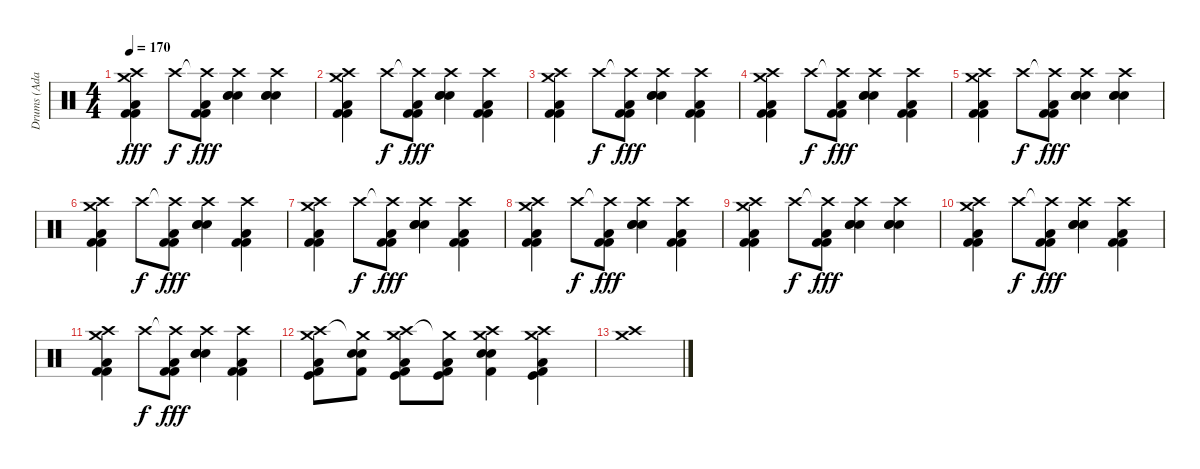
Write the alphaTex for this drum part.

\track ("Drums (Adam)" "Drums (Ada") {instrument percussion}
\staff {score}
\articulation defaults
\ts (4 4)
\tempo 170
\clef neutral
\ks c
("Crash medium (hit)" "Crash high (hit)" "Low Tom (hit)" "Kick (hit) 2" "Kick (hit) 2").4{dy fff} "Crash high (hit)".8{dy f} ("Crash high (hit)"{t} "Low Tom (hit)" "Kick (hit) 2" "Kick (hit) 2").8{dy fff} ("Crash high (hit)" "Snare (hit) 2" "Electric Snare (hit)" "Snare (hit) 2").4 ("Crash high (hit)" "Snare (hit) 2" "Electric Snare (hit)" "Snare (hit) 2").4 |
("Crash medium (hit)" "Crash high (hit)" "Low Tom (hit)" "Kick (hit) 2" "Kick (hit) 2").4 "Crash high (hit)".8{dy f} ("Crash high (hit)"{t} "Low Tom (hit)" "Kick (hit) 2" "Kick (hit) 2").8{dy fff} ("Crash high (hit)" "Snare (hit) 2" "Electric Snare (hit)" "Snare (hit) 2").4 ("Crash high (hit)" "Low Tom (hit)" "Kick (hit) 2" "Kick (hit) 2").4 |
("Crash medium (hit)" "Crash high (hit)" "Low Tom (hit)" "Kick (hit) 2" "Kick (hit) 2").4 "Crash high (hit)".8{dy f} ("Crash high (hit)"{t} "Low Tom (hit)" "Kick (hit) 2" "Kick (hit) 2").8{dy fff} ("Crash high (hit)" "Snare (hit) 2" "Electric Snare (hit)" "Snare (hit) 2").4 ("Crash high (hit)" "Low Tom (hit)" "Kick (hit) 2" "Kick (hit) 2").4 |
("Crash medium (hit)" "Crash high (hit)" "Low Tom (hit)" "Kick (hit) 2" "Kick (hit) 2").4 "Crash high (hit)".8{dy f} ("Crash high (hit)"{t} "Low Tom (hit)" "Kick (hit) 2" "Kick (hit) 2").8{dy fff} ("Crash high (hit)" "Snare (hit) 2" "Electric Snare (hit)" "Snare (hit) 2").4 ("Crash high (hit)" "Low Tom (hit)" "Kick (hit) 2" "Kick (hit) 2").4 |
("Crash medium (hit)" "Crash high (hit)" "Low Tom (hit)" "Kick (hit) 2" "Kick (hit) 2").4 "Crash high (hit)".8{dy f} ("Crash high (hit)"{t} "Low Tom (hit)" "Kick (hit) 2" "Kick (hit) 2").8{dy fff} ("Crash high (hit)" "Snare (hit) 2" "Electric Snare (hit)" "Snare (hit) 2").4 ("Crash high (hit)" "Snare (hit) 2" "Electric Snare (hit)" "Snare (hit) 2").4 |
("Crash medium (hit)" "Crash high (hit)" "Low Tom (hit)" "Kick (hit) 2" "Kick (hit) 2").4 "Crash high (hit)".8{dy f} ("Crash high (hit)"{t} "Low Tom (hit)" "Kick (hit) 2" "Kick (hit) 2").8{dy fff} ("Crash high (hit)" "Snare (hit) 2" "Electric Snare (hit)" "Snare (hit) 2").4 ("Crash high (hit)" "Low Tom (hit)" "Kick (hit) 2" "Kick (hit) 2").4 |
("Crash medium (hit)" "Crash high (hit)" "Low Tom (hit)" "Kick (hit) 2" "Kick (hit) 2").4 "Crash high (hit)".8{dy f} ("Crash high (hit)"{t} "Low Tom (hit)" "Kick (hit) 2" "Kick (hit) 2").8{dy fff} ("Crash high (hit)" "Snare (hit) 2" "Electric Snare (hit)" "Snare (hit) 2").4 ("Crash high (hit)" "Low Tom (hit)" "Kick (hit) 2" "Kick (hit) 2").4 |
("Crash medium (hit)" "Crash high (hit)" "Low Tom (hit)" "Kick (hit) 2" "Kick (hit) 2").4 "Crash high (hit)".8{dy f} ("Crash high (hit)"{t} "Low Tom (hit)" "Kick (hit) 2" "Kick (hit) 2").8{dy fff} ("Crash high (hit)" "Snare (hit) 2" "Electric Snare (hit)" "Snare (hit) 2").4 ("Crash high (hit)" "Low Tom (hit)" "Kick (hit) 2" "Kick (hit) 2").4 |
("Crash medium (hit)" "Crash high (hit)" "Low Tom (hit)" "Kick (hit) 2" "Kick (hit) 2").4 "Crash high (hit)".8{dy f} ("Crash high (hit)"{t} "Low Tom (hit)" "Kick (hit) 2" "Kick (hit) 2").8{dy fff} ("Crash high (hit)" "Snare (hit) 2" "Electric Snare (hit)" "Snare (hit) 2").4 ("Crash high (hit)" "Snare (hit) 2" "Electric Snare (hit)" "Snare (hit) 2").4 |
("Crash medium (hit)" "Crash high (hit)" "Low Tom (hit)" "Kick (hit) 2" "Kick (hit) 2").4 "Crash high (hit)".8{dy f} ("Crash high (hit)"{t} "Low Tom (hit)" "Kick (hit) 2" "Kick (hit) 2").8{dy fff} ("Crash high (hit)" "Snare (hit) 2" "Electric Snare (hit)" "Snare (hit) 2").4 ("Crash high (hit)" "Low Tom (hit)" "Kick (hit) 2" "Kick (hit) 2").4 |
("Crash medium (hit)" "Crash high (hit)" "Low Tom (hit)" "Kick (hit) 2" "Kick (hit) 2").4 "Crash high (hit)".8{dy f} ("Crash high (hit)"{t} "Low Tom (hit)" "Kick (hit) 2" "Kick (hit) 2").8{dy fff} ("Crash high (hit)" "Snare (hit) 2" "Electric Snare (hit)" "Snare (hit) 2").4 ("Crash high (hit)" "Low Tom (hit)" "Kick (hit) 2" "Kick (hit) 2").4 |
("Crash high (hit)" "Crash medium (hit)" "Low Tom (hit)" "Kick (hit)" "Kick (hit) 2").8 ("Crash medium (hit)"{t} "Snare (hit) 2" "Electric Snare (hit)" "Kick (hit) 2").8 ("Crash high (hit)" "Crash medium (hit)" "Low Tom (hit)" "Kick (hit)" "Kick (hit) 2").8 ("Crash medium (hit)"{t} "Low Tom (hit)" "Kick (hit)" "Kick (hit) 2").8 ("Crash high (hit)" "Crash medium (hit)" "Snare (hit) 2" "Electric Snare (hit)" "Kick (hit) 2").4 ("Crash high (hit)" "Crash medium (hit)" "Low Tom (hit)" "Kick (hit)" "Kick (hit) 2").4 |
("Crash high (hit)" "Crash medium (hit)").1
